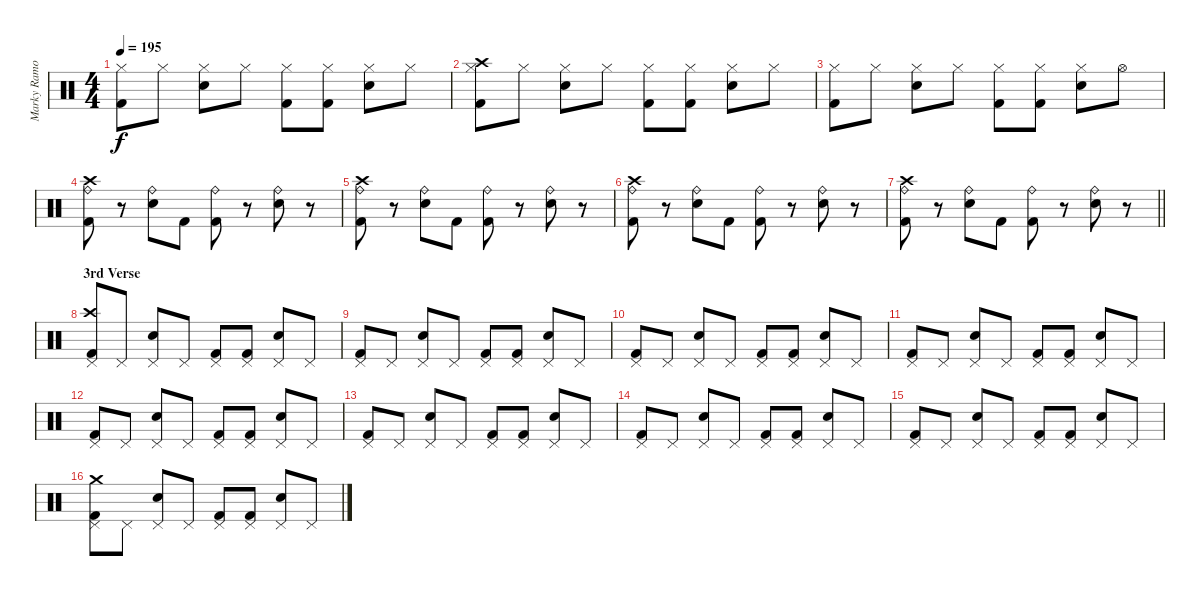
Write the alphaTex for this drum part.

\track ("Marky Ramones" "Marky Ramo") {instrument percussion}
\staff {score}
\articulation defaults
\ts (4 4)
\tempo 195
\clef neutral
\ks c
("Hi-Hat (closed)" "Kick (hit) 2").8{dy f} "Hi-Hat (closed)".8 ("Hi-Hat (closed)" "Electric Snare (hit)").8 "Hi-Hat (closed)".8 ("Hi-Hat (closed)" "Kick (hit) 2").8 ("Hi-Hat (closed)" "Kick (hit) 2").8 ("Hi-Hat (closed)" "Electric Snare (hit)").8 "Hi-Hat (closed)".8 |
("Hi-Hat (closed)" "Kick (hit) 2" "Crash high (hit)").8 "Hi-Hat (closed)".8 ("Hi-Hat (closed)" "Electric Snare (hit)").8 "Hi-Hat (closed)".8 ("Hi-Hat (closed)" "Kick (hit) 2").8 ("Hi-Hat (closed)" "Kick (hit) 2").8 ("Hi-Hat (closed)" "Electric Snare (hit)").8 "Hi-Hat (closed)".8 |
("Hi-Hat (closed)" "Kick (hit) 2").8 "Hi-Hat (closed)".8 ("Hi-Hat (closed)" "Electric Snare (hit)").8 "Hi-Hat (closed)".8 ("Hi-Hat (closed)" "Kick (hit) 2").8 ("Hi-Hat (closed)" "Kick (hit) 2").8 ("Hi-Hat (closed)" "Electric Snare (hit)").8 "Hi-Hat (open)".8 |
("Ride (bell)" "Kick (hit) 2" "Crash high (hit)").8 r.8 ("Ride (bell)" "Electric Snare (hit)").8 "Kick (hit) 2".8 ("Ride (bell)" "Kick (hit) 2").8 r.8 ("Ride (bell)" "Electric Snare (hit)").8 r.8 |
("Ride (bell)" "Kick (hit) 2" "Crash high (hit)").8 r.8 ("Ride (bell)" "Electric Snare (hit)").8 "Kick (hit) 2".8 ("Ride (bell)" "Kick (hit) 2").8 r.8 ("Ride (bell)" "Electric Snare (hit)").8 r.8 |
("Ride (bell)" "Kick (hit) 2" "Crash high (hit)").8 r.8 ("Ride (bell)" "Electric Snare (hit)").8 "Kick (hit) 2".8 ("Ride (bell)" "Kick (hit) 2").8 r.8 ("Ride (bell)" "Electric Snare (hit)").8 r.8 |
\barLineRight lightlight
("Ride (bell)" "Kick (hit) 2" "Crash high (hit)").8 r.8 ("Ride (bell)" "Electric Snare (hit)").8 "Kick (hit) 2".8 ("Ride (bell)" "Kick (hit) 2").8 r.8 ("Ride (bell)" "Electric Snare (hit)").8 r.8 |
\section ("" "3rd Verse")
("Pedal Hi-Hat (hit)" "Kick (hit) 2" "Crash high (hit)").8 "Pedal Hi-Hat (hit)".8 ("Pedal Hi-Hat (hit)" "Electric Snare (hit)").8 "Pedal Hi-Hat (hit)".8 ("Pedal Hi-Hat (hit)" "Kick (hit) 2").8 ("Pedal Hi-Hat (hit)" "Kick (hit) 2").8 ("Pedal Hi-Hat (hit)" "Electric Snare (hit)").8 "Pedal Hi-Hat (hit)".8 |
("Pedal Hi-Hat (hit)" "Kick (hit) 2").8 "Pedal Hi-Hat (hit)".8 ("Pedal Hi-Hat (hit)" "Electric Snare (hit)").8 "Pedal Hi-Hat (hit)".8 ("Pedal Hi-Hat (hit)" "Kick (hit) 2").8 ("Pedal Hi-Hat (hit)" "Kick (hit) 2").8 ("Pedal Hi-Hat (hit)" "Electric Snare (hit)").8 "Pedal Hi-Hat (hit)".8 |
("Pedal Hi-Hat (hit)" "Kick (hit) 2").8 "Pedal Hi-Hat (hit)".8 ("Pedal Hi-Hat (hit)" "Electric Snare (hit)").8 "Pedal Hi-Hat (hit)".8 ("Pedal Hi-Hat (hit)" "Kick (hit) 2").8 ("Pedal Hi-Hat (hit)" "Kick (hit) 2").8 ("Pedal Hi-Hat (hit)" "Electric Snare (hit)").8 "Pedal Hi-Hat (hit)".8 |
("Pedal Hi-Hat (hit)" "Kick (hit) 2").8 "Pedal Hi-Hat (hit)".8 ("Pedal Hi-Hat (hit)" "Electric Snare (hit)").8 "Pedal Hi-Hat (hit)".8 ("Pedal Hi-Hat (hit)" "Kick (hit) 2").8 ("Pedal Hi-Hat (hit)" "Kick (hit) 2").8 ("Pedal Hi-Hat (hit)" "Electric Snare (hit)").8 "Pedal Hi-Hat (hit)".8 |
("Pedal Hi-Hat (hit)" "Kick (hit) 2").8 "Pedal Hi-Hat (hit)".8 ("Pedal Hi-Hat (hit)" "Electric Snare (hit)").8 "Pedal Hi-Hat (hit)".8 ("Pedal Hi-Hat (hit)" "Kick (hit) 2").8 ("Pedal Hi-Hat (hit)" "Kick (hit) 2").8 ("Pedal Hi-Hat (hit)" "Electric Snare (hit)").8 "Pedal Hi-Hat (hit)".8 |
("Pedal Hi-Hat (hit)" "Kick (hit) 2").8 "Pedal Hi-Hat (hit)".8 ("Pedal Hi-Hat (hit)" "Electric Snare (hit)").8 "Pedal Hi-Hat (hit)".8 ("Pedal Hi-Hat (hit)" "Kick (hit) 2").8 ("Pedal Hi-Hat (hit)" "Kick (hit) 2").8 ("Pedal Hi-Hat (hit)" "Electric Snare (hit)").8 "Pedal Hi-Hat (hit)".8 |
("Pedal Hi-Hat (hit)" "Kick (hit) 2").8 "Pedal Hi-Hat (hit)".8 ("Pedal Hi-Hat (hit)" "Electric Snare (hit)").8 "Pedal Hi-Hat (hit)".8 ("Pedal Hi-Hat (hit)" "Kick (hit) 2").8 ("Pedal Hi-Hat (hit)" "Kick (hit) 2").8 ("Pedal Hi-Hat (hit)" "Electric Snare (hit)").8 "Pedal Hi-Hat (hit)".8 |
("Pedal Hi-Hat (hit)" "Kick (hit) 2").8 "Pedal Hi-Hat (hit)".8 ("Pedal Hi-Hat (hit)" "Electric Snare (hit)").8 "Pedal Hi-Hat (hit)".8 ("Pedal Hi-Hat (hit)" "Kick (hit) 2").8 ("Pedal Hi-Hat (hit)" "Kick (hit) 2").8 ("Pedal Hi-Hat (hit)" "Electric Snare (hit)").8 "Pedal Hi-Hat (hit)".8 |
("Pedal Hi-Hat (hit)" "Kick (hit) 2" "Crash medium (hit)").8 "Pedal Hi-Hat (hit)".8 ("Pedal Hi-Hat (hit)" "Electric Snare (hit)").8 "Pedal Hi-Hat (hit)".8 ("Pedal Hi-Hat (hit)" "Kick (hit) 2").8 ("Pedal Hi-Hat (hit)" "Kick (hit) 2").8 ("Pedal Hi-Hat (hit)" "Electric Snare (hit)").8 "Pedal Hi-Hat (hit)".8
